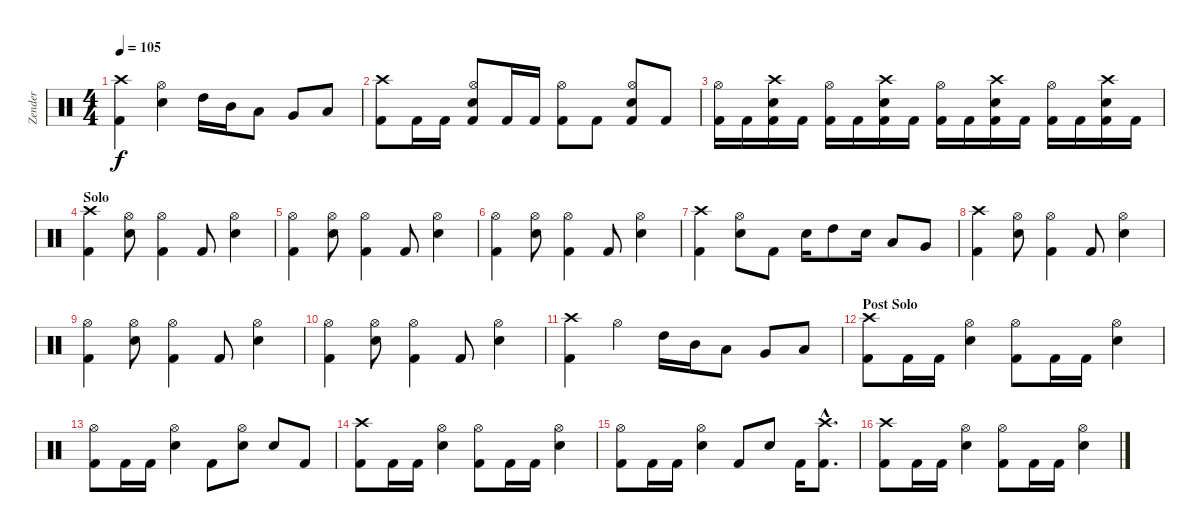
\track ("Zender" "Zender") {instrument percussion}
\staff {score}
\articulation defaults
\ts (4 4)
\tempo 105
\clef neutral
\ks c
("Crash high (hit)" "Kick (hit) 2").4{dy f} ("Hi-Hat (open)" "Hand Clap (hit)").4 "High Tom (hit)".16 "Mid Tom (hit)".16 "Low Tom (hit)".8 "Very Low Tom (hit)".8 "Low Floor Tom (hit)".8 |
("Crash high (hit)" "Kick (hit) 2").8 "Kick (hit) 2".16 "Kick (hit) 2".16 ("Electric Snare (hit)" "Hi-Hat (open)" "Kick (hit) 2").8 "Kick (hit) 2".16 "Kick (hit) 2".16 ("Hi-Hat (open)" "Kick (hit) 2").8 "Kick (hit) 2".8 ("Electric Snare (hit)" "Hi-Hat (open)" "Kick (hit) 2").8 "Kick (hit) 2".8 |
("Hi-Hat (open)" "Kick (hit) 2").16 "Kick (hit) 2".16 ("Crash high (hit)" "Electric Snare (hit)" "Kick (hit) 2").16 "Kick (hit) 2".16 ("Hi-Hat (open)" "Kick (hit) 2").16 "Kick (hit) 2".16 ("Crash high (hit)" "Electric Snare (hit)" "Kick (hit) 2").16 "Kick (hit) 2".16 ("Hi-Hat (open)" "Kick (hit) 2").16 "Kick (hit) 2".16 ("Crash high (hit)" "Electric Snare (hit)" "Kick (hit) 2").16 "Kick (hit) 2".16 ("Hi-Hat (open)" "Kick (hit) 2").16 "Kick (hit) 2".16 ("Crash high (hit)" "Electric Snare (hit)" "Kick (hit) 2").16 "Kick (hit) 2".16 |
\section ("" "Solo")
("Crash high (hit)" "Kick (hit) 2").4 ("Hi-Hat (open)" "Electric Snare (hit)").8 ("Hi-Hat (open)" "Kick (hit) 2").4 "Kick (hit) 2".8 ("Hi-Hat (open)" "Electric Snare (hit)").4 |
("Hi-Hat (open)" "Kick (hit) 2").4 ("Hi-Hat (open)" "Electric Snare (hit)").8 ("Hi-Hat (open)" "Kick (hit) 2").4 "Kick (hit) 2".8 ("Hi-Hat (open)" "Electric Snare (hit)").4 |
("Hi-Hat (open)" "Kick (hit) 2").4 ("Hi-Hat (open)" "Electric Snare (hit)").8 ("Hi-Hat (open)" "Kick (hit) 2").4 "Kick (hit) 2".8 ("Hi-Hat (open)" "Electric Snare (hit)").4 |
("Crash high (hit)" "Kick (hit) 2").4 ("Hi-Hat (open)" "Electric Snare (hit)").8 "Kick (hit) 2".8 "Electric Snare (hit)".16 "High Tom (hit)".8 "Electric Snare (hit)".16 "Low Tom (hit)".8 "Very Low Tom (hit)".8 |
("Crash high (hit)" "Kick (hit) 2").4 ("Hi-Hat (open)" "Electric Snare (hit)").8 ("Hi-Hat (open)" "Kick (hit) 2").4 "Kick (hit) 2".8 ("Hi-Hat (open)" "Electric Snare (hit)").4 |
("Hi-Hat (open)" "Kick (hit) 2").4 ("Hi-Hat (open)" "Electric Snare (hit)").8 ("Hi-Hat (open)" "Kick (hit) 2").4 "Kick (hit) 2".8 ("Hi-Hat (open)" "Electric Snare (hit)").4 |
("Hi-Hat (open)" "Kick (hit) 2").4 ("Hi-Hat (open)" "Electric Snare (hit)").8 ("Hi-Hat (open)" "Kick (hit) 2").4 "Kick (hit) 2".8 ("Hi-Hat (open)" "Electric Snare (hit)").4 |
("Crash high (hit)" "Kick (hit) 2").4 "Hi-Hat (open)".4 "High Tom (hit)".16 "Mid Tom (hit)".16 "Low Tom (hit)".8 "Very Low Tom (hit)".8 "Low Floor Tom (hit)".8 |
\section ("" "Post Solo")
("Crash high (hit)" "Kick (hit) 2").8 "Kick (hit) 2".16 "Kick (hit) 2".16 ("Electric Snare (hit)" "Hi-Hat (open)").4 ("Hi-Hat (open)" "Kick (hit) 2").8 "Kick (hit) 2".16 "Kick (hit) 2".16 ("Electric Snare (hit)" "Hi-Hat (open)").4 |
("Hi-Hat (open)" "Kick (hit) 2").8 "Kick (hit) 2".16 "Kick (hit) 2".16 ("Electric Snare (hit)" "Hi-Hat (open)").4 "Kick (hit) 2".8 ("Electric Snare (hit)" "Hi-Hat (open)").8 "Electric Snare (hit)".8 "Kick (hit) 2".8 |
("Crash high (hit)" "Kick (hit) 2").8 "Kick (hit) 2".16 "Kick (hit) 2".16 ("Electric Snare (hit)" "Hi-Hat (open)").4 ("Hi-Hat (open)" "Kick (hit) 2").8 "Kick (hit) 2".16 "Kick (hit) 2".16 ("Electric Snare (hit)" "Hi-Hat (open)").4 |
("Hi-Hat (open)" "Kick (hit) 2").8 "Kick (hit) 2".16 "Kick (hit) 2".16 ("Electric Snare (hit)" "Hi-Hat (open)").4 "Kick (hit) 2".8 "Electric Snare (hit)".8 "Kick (hit) 2".16 ("Crash high (hit)"{hac} "Kick (hit) 2"{hac}).8{d} |
("Crash high (hit)" "Kick (hit) 2").8 "Kick (hit) 2".16 "Kick (hit) 2".16 ("Electric Snare (hit)" "Hi-Hat (open)").4 ("Hi-Hat (open)" "Kick (hit) 2").8 "Kick (hit) 2".16 "Kick (hit) 2".16 ("Electric Snare (hit)" "Hi-Hat (open)").4
